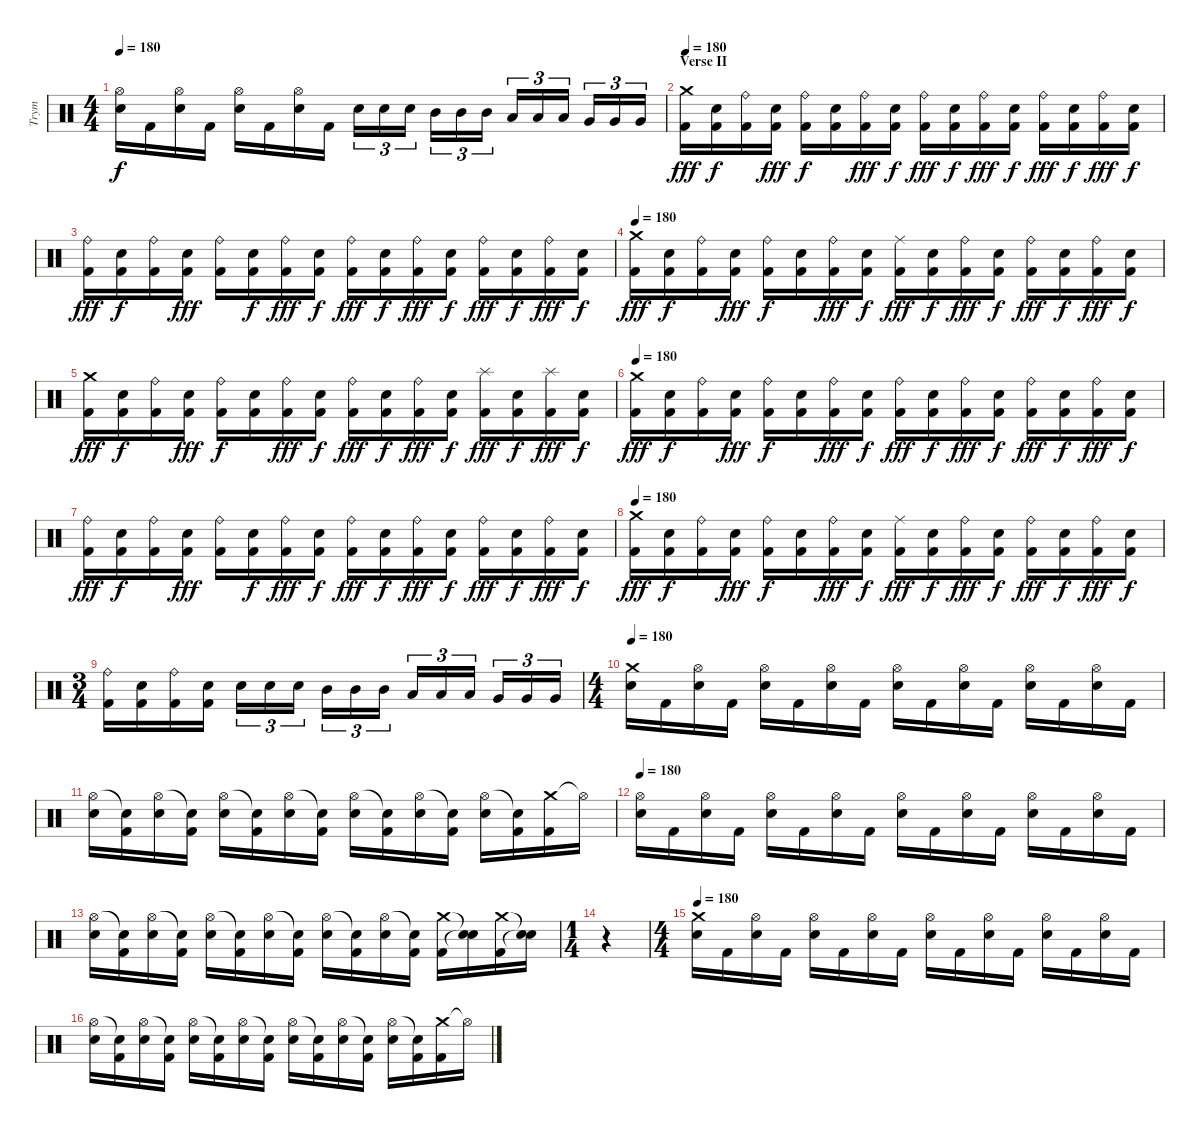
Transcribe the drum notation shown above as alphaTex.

\track ("Trym" "Trym") {instrument percussion}
\staff {score}
\articulation defaults
\ts (4 4)
\tempo 180
\clef neutral
\ks c
("Hi-Hat (open)" "Electric Snare (hit)").16{dy f} "Kick (hit) 2".16 ("Hi-Hat (open)" "Electric Snare (hit)").16 "Kick (hit) 2".16 ("Hi-Hat (open)" "Electric Snare (hit)").16 "Kick (hit) 2".16 ("Hi-Hat (open)" "Electric Snare (hit)").16 "Kick (hit) 2".16 "Snare (hit) 2".16{tu (3 2)} "Snare (hit) 2".16{tu (3 2)} "Snare (hit) 2".16{tu (3 2)} "Mid Tom (hit)".16{tu (3 2)} "Mid Tom (hit)".16{tu (3 2)} "Mid Tom (hit)".16{tu (3 2)} "Low Tom (hit)".16{tu (3 2)} "Low Tom (hit)".16{tu (3 2)} "Low Tom (hit)".16{tu (3 2)} "Very Low Tom (hit)".16{tu (3 2)} "Very Low Tom (hit)".16{tu (3 2)} "Very Low Tom (hit)".16{tu (3 2)} |
\section ("" "Verse II")
\tempo 180
("Crash medium (hit)" "Kick (hit) 2").16{dy fff} ("Snare (hit) 2" "Kick (hit) 2").16{dy f} ("Ride (bell)" "Kick (hit) 2").16 ("Snare (hit) 2" "Kick (hit) 2").16{dy fff} ("Ride (bell)" "Kick (hit) 2").16{dy f} ("Snare (hit) 2" "Kick (hit) 2").16 ("Ride (bell)" "Kick (hit) 2").16{dy fff} ("Snare (hit) 2" "Kick (hit) 2").16{dy f} ("Ride (bell)" "Kick (hit) 2").16{dy fff} ("Snare (hit) 2" "Kick (hit) 2").16{dy f} ("Ride (bell)" "Kick (hit) 2").16{dy fff} ("Snare (hit) 2" "Kick (hit) 2").16{dy f} ("Ride (bell)" "Kick (hit) 2").16{dy fff} ("Snare (hit) 2" "Kick (hit) 2").16{dy f} ("Ride (bell)" "Kick (hit) 2").16{dy fff} ("Snare (hit) 2" "Kick (hit) 2").16{dy f} |
("Ride (bell)" "Kick (hit) 2").16{dy fff} ("Snare (hit) 2" "Kick (hit) 2").16{dy f} ("Ride (bell)" "Kick (hit) 2").16 ("Snare (hit) 2" "Kick (hit) 2").16{dy fff} ("Ride (bell)" "Kick (hit) 2").16 ("Snare (hit) 2" "Kick (hit) 2").16{dy f} ("Ride (bell)" "Kick (hit) 2").16{dy fff} ("Snare (hit) 2" "Kick (hit) 2").16{dy f} ("Ride (bell)" "Kick (hit) 2").16{dy fff} ("Snare (hit) 2" "Kick (hit) 2").16{dy f} ("Ride (bell)" "Kick (hit) 2").16{dy fff} ("Snare (hit) 2" "Kick (hit) 2").16{dy f} ("Ride (bell)" "Kick (hit) 2").16{dy fff} ("Snare (hit) 2" "Kick (hit) 2").16{dy f} ("Ride (bell)" "Kick (hit) 2").16{dy fff} ("Snare (hit) 2" "Kick (hit) 2").16{dy f} |
\tempo 180
("Crash medium (hit)" "Kick (hit) 2").16{dy fff} ("Snare (hit) 2" "Kick (hit) 2").16{dy f} ("Ride (bell)" "Kick (hit) 2").16 ("Snare (hit) 2" "Kick (hit) 2").16{dy fff} ("Ride (bell)" "Kick (hit) 2").16{dy f} ("Snare (hit) 2" "Kick (hit) 2").16 ("Ride (bell)" "Kick (hit) 2").16{dy fff} ("Snare (hit) 2" "Kick (hit) 2").16{dy f} ("Ride (middle)" "Kick (hit) 2").16{dy fff} ("Snare (hit) 2" "Kick (hit) 2").16{dy f} ("Ride (bell)" "Kick (hit) 2").16{dy fff} ("Snare (hit) 2" "Kick (hit) 2").16{dy f} ("Ride (bell)" "Kick (hit) 2").16{dy fff} ("Snare (hit) 2" "Kick (hit) 2").16{dy f} ("Ride (bell)" "Kick (hit) 2").16{dy fff} ("Snare (hit) 2" "Kick (hit) 2").16{dy f} |
("Crash medium (hit)" "Kick (hit) 2").16{dy fff} ("Snare (hit) 2" "Kick (hit) 2").16{dy f} ("Ride (bell)" "Kick (hit) 2").16 ("Snare (hit) 2" "Kick (hit) 2").16{dy fff} ("Ride (bell)" "Kick (hit) 2").16{dy f} ("Snare (hit) 2" "Kick (hit) 2").16 ("Ride (bell)" "Kick (hit) 2").16{dy fff} ("Snare (hit) 2" "Kick (hit) 2").16{dy f} ("Ride (bell)" "Kick (hit) 2").16{dy fff} ("Snare (hit) 2" "Kick (hit) 2").16{dy f} ("Ride (bell)" "Kick (hit) 2").16{dy fff} ("Snare (hit) 2" "Kick (hit) 2").16{dy f} ("Splash (hit)" "Kick (hit) 2").16{dy fff} ("Snare (hit) 2" "Kick (hit) 2").16{dy f} ("Splash (hit)" "Kick (hit) 2").16{dy fff} ("Snare (hit) 2" "Kick (hit) 2").16{dy f} |
\tempo 180
("Crash medium (hit)" "Kick (hit) 2").16{dy fff} ("Snare (hit) 2" "Kick (hit) 2").16{dy f} ("Ride (bell)" "Kick (hit) 2").16 ("Snare (hit) 2" "Kick (hit) 2").16{dy fff} ("Ride (bell)" "Kick (hit) 2").16{dy f} ("Snare (hit) 2" "Kick (hit) 2").16 ("Ride (bell)" "Kick (hit) 2").16{dy fff} ("Snare (hit) 2" "Kick (hit) 2").16{dy f} ("Ride (bell)" "Kick (hit) 2").16{dy fff} ("Snare (hit) 2" "Kick (hit) 2").16{dy f} ("Ride (bell)" "Kick (hit) 2").16{dy fff} ("Snare (hit) 2" "Kick (hit) 2").16{dy f} ("Ride (bell)" "Kick (hit) 2").16{dy fff} ("Snare (hit) 2" "Kick (hit) 2").16{dy f} ("Ride (bell)" "Kick (hit) 2").16{dy fff} ("Snare (hit) 2" "Kick (hit) 2").16{dy f} |
("Ride (bell)" "Kick (hit) 2").16{dy fff} ("Snare (hit) 2" "Kick (hit) 2").16{dy f} ("Ride (bell)" "Kick (hit) 2").16 ("Snare (hit) 2" "Kick (hit) 2").16{dy fff} ("Ride (bell)" "Kick (hit) 2").16 ("Snare (hit) 2" "Kick (hit) 2").16{dy f} ("Ride (bell)" "Kick (hit) 2").16{dy fff} ("Snare (hit) 2" "Kick (hit) 2").16{dy f} ("Ride (bell)" "Kick (hit) 2").16{dy fff} ("Snare (hit) 2" "Kick (hit) 2").16{dy f} ("Ride (bell)" "Kick (hit) 2").16{dy fff} ("Snare (hit) 2" "Kick (hit) 2").16{dy f} ("Ride (bell)" "Kick (hit) 2").16{dy fff} ("Snare (hit) 2" "Kick (hit) 2").16{dy f} ("Ride (bell)" "Kick (hit) 2").16{dy fff} ("Snare (hit) 2" "Kick (hit) 2").16{dy f} |
\tempo 180
("Crash medium (hit)" "Kick (hit) 2").16{dy fff} ("Snare (hit) 2" "Kick (hit) 2").16{dy f} ("Ride (bell)" "Kick (hit) 2").16 ("Snare (hit) 2" "Kick (hit) 2").16{dy fff} ("Ride (bell)" "Kick (hit) 2").16{dy f} ("Snare (hit) 2" "Kick (hit) 2").16 ("Ride (bell)" "Kick (hit) 2").16{dy fff} ("Snare (hit) 2" "Kick (hit) 2").16{dy f} ("Ride (middle)" "Kick (hit) 2").16{dy fff} ("Snare (hit) 2" "Kick (hit) 2").16{dy f} ("Ride (bell)" "Kick (hit) 2").16{dy fff} ("Snare (hit) 2" "Kick (hit) 2").16{dy f} ("Ride (bell)" "Kick (hit) 2").16{dy fff} ("Snare (hit) 2" "Kick (hit) 2").16{dy f} ("Ride (bell)" "Kick (hit) 2").16{dy fff} ("Snare (hit) 2" "Kick (hit) 2").16{dy f} |
\ts (3 4)
("Ride (bell)" "Kick (hit) 2").16 ("Snare (hit) 2" "Kick (hit) 2").16 ("Ride (bell)" "Kick (hit) 2").16 ("Snare (hit) 2" "Kick (hit) 2").16 "Snare (hit) 2".16{tu (3 2)} "Snare (hit) 2".16{tu (3 2)} "Snare (hit) 2".16{tu (3 2)} "Mid Tom (hit)".16{tu (3 2)} "Mid Tom (hit)".16{tu (3 2)} "Mid Tom (hit)".16{tu (3 2)} "Low Tom (hit)".16{tu (3 2)} "Low Tom (hit)".16{tu (3 2)} "Low Tom (hit)".16{tu (3 2)} "Very Low Tom (hit)".16{tu (3 2)} "Very Low Tom (hit)".16{tu (3 2)} "Very Low Tom (hit)".16{tu (3 2)} |
\ts (4 4)
\tempo 180
("Crash medium (hit)" "Electric Snare (hit)").16 "Kick (hit) 2".16 ("Hi-Hat (open)" "Electric Snare (hit)").16 "Kick (hit) 2".16 ("Hi-Hat (open)" "Electric Snare (hit)").16 "Kick (hit) 2".16 ("Hi-Hat (open)" "Electric Snare (hit)").16 "Kick (hit) 2".16 ("Hi-Hat (open)" "Electric Snare (hit)").16 "Kick (hit) 2".16 ("Hi-Hat (open)" "Electric Snare (hit)").16 "Kick (hit) 2".16 ("Hi-Hat (open)" "Electric Snare (hit)").16 "Kick (hit) 2".16 ("Hi-Hat (open)" "Electric Snare (hit)").16 "Kick (hit) 2".16 |
("Hi-Hat (open)" "Electric Snare (hit)").16 ("Snare (hit)"{t} "Kick (hit) 2").16 ("Hi-Hat (open)" "Electric Snare (hit)").16 ("Snare (hit)"{t} "Kick (hit) 2").16 ("Hi-Hat (open)" "Electric Snare (hit)").16 ("Snare (hit)"{t} "Kick (hit) 2").16 ("Hi-Hat (open)" "Electric Snare (hit)").16 ("Snare (hit)"{t} "Kick (hit) 2").16 ("Hi-Hat (open)" "Electric Snare (hit)").16 ("Snare (hit)"{t} "Kick (hit) 2").16 ("Hi-Hat (open)" "Electric Snare (hit)").16 ("Snare (hit)"{t} "Kick (hit) 2").16 ("Hi-Hat (open)" "Electric Snare (hit)").16 ("Snare (hit)"{t} "Kick (hit) 2").16 ("Crash medium (hit)" "Kick (hit) 2").16 "Hi-Hat (open)"{t}.16 |
\tempo 180
("Hi-Hat (open)" "Electric Snare (hit)").16 "Kick (hit) 2".16 ("Hi-Hat (open)" "Electric Snare (hit)").16 "Kick (hit) 2".16 ("Hi-Hat (open)" "Electric Snare (hit)").16 "Kick (hit) 2".16 ("Hi-Hat (open)" "Electric Snare (hit)").16 "Kick (hit) 2".16 ("Hi-Hat (open)" "Electric Snare (hit)").16 "Kick (hit) 2".16 ("Hi-Hat (open)" "Electric Snare (hit)").16 "Kick (hit) 2".16 ("Hi-Hat (open)" "Electric Snare (hit)").16 "Kick (hit) 2".16 ("Hi-Hat (open)" "Electric Snare (hit)").16 "Kick (hit) 2".16 |
("Hi-Hat (open)" "Electric Snare (hit)").16 ("Snare (hit)"{t} "Kick (hit) 2").16 ("Hi-Hat (open)" "Electric Snare (hit)").16 ("Snare (hit)"{t} "Kick (hit) 2").16 ("Hi-Hat (open)" "Electric Snare (hit)").16 ("Snare (hit)"{t} "Kick (hit) 2").16 ("Hi-Hat (open)" "Electric Snare (hit)").16 ("Snare (hit)"{t} "Kick (hit) 2").16 ("Hi-Hat (open)" "Electric Snare (hit)").16 ("Snare (hit)"{t} "Kick (hit) 2").16 ("Hi-Hat (open)" "Electric Snare (hit)").16 ("Snare (hit)"{t} "Kick (hit) 2").16 ("Crash medium (hit)" "Kick (hit) 2").16 ("Snare (hit)"{t} "Snare (hit)"{t}).16 ("Crash medium (hit)" "Kick (hit) 2").16 ("Snare (hit)"{t} "Snare (hit)"{t}).16 |
\ts (1 4)
r.4 |
\ts (4 4)
\tempo 180
("Crash medium (hit)" "Electric Snare (hit)").16 "Kick (hit) 2".16 ("Hi-Hat (open)" "Electric Snare (hit)").16 "Kick (hit) 2".16 ("Hi-Hat (open)" "Electric Snare (hit)").16 "Kick (hit) 2".16 ("Hi-Hat (open)" "Electric Snare (hit)").16 "Kick (hit) 2".16 ("Hi-Hat (open)" "Electric Snare (hit)").16 "Kick (hit) 2".16 ("Hi-Hat (open)" "Electric Snare (hit)").16 "Kick (hit) 2".16 ("Hi-Hat (open)" "Electric Snare (hit)").16 "Kick (hit) 2".16 ("Hi-Hat (open)" "Electric Snare (hit)").16 "Kick (hit) 2".16 |
("Hi-Hat (open)" "Electric Snare (hit)").16 ("Snare (hit)"{t} "Kick (hit) 2").16 ("Hi-Hat (open)" "Electric Snare (hit)").16 ("Snare (hit)"{t} "Kick (hit) 2").16 ("Hi-Hat (open)" "Electric Snare (hit)").16 ("Snare (hit)"{t} "Kick (hit) 2").16 ("Hi-Hat (open)" "Electric Snare (hit)").16 ("Snare (hit)"{t} "Kick (hit) 2").16 ("Hi-Hat (open)" "Electric Snare (hit)").16 ("Snare (hit)"{t} "Kick (hit) 2").16 ("Hi-Hat (open)" "Electric Snare (hit)").16 ("Snare (hit)"{t} "Kick (hit) 2").16 ("Hi-Hat (open)" "Electric Snare (hit)").16 ("Snare (hit)"{t} "Kick (hit) 2").16 ("Crash medium (hit)" "Kick (hit) 2").16 "Hi-Hat (open)"{t}.16
